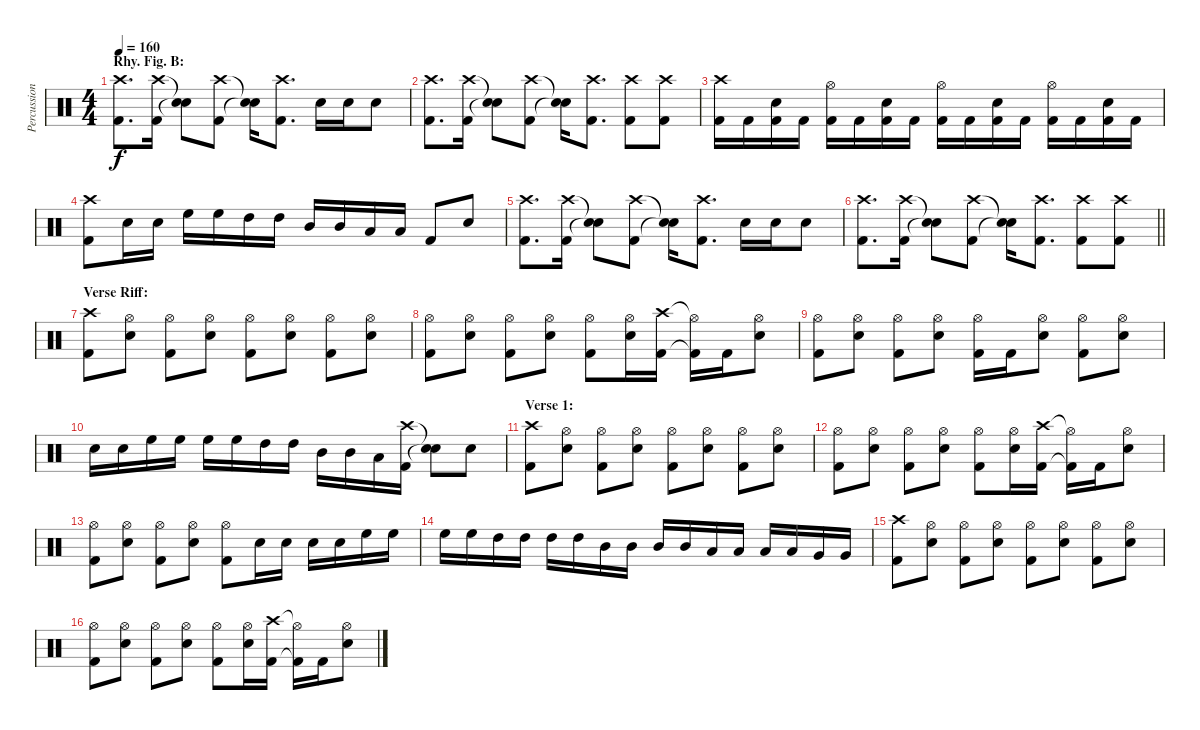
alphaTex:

\track ("Percussion" "Percussion") {instrument percussion}
\staff {score}
\articulation defaults
\ts (4 4)
\section ("" "Rhy. Fig. B:")
\tempo 160
\clef neutral
\ks c
("Crash high (hit)" "Kick (hit) 2").8{d dy f} ("Crash high (hit)" "Kick (hit) 2").16 ("Snare (hit)"{t} "Snare (hit)"{t}).8 ("Crash high (hit)" "Kick (hit) 2").8 ("Snare (hit)"{t} "Snare (hit)"{t}).16 ("Crash high (hit)" "Kick (hit) 2").8{d} "Snare (hit) 2".16 "Snare (hit) 2".16 "Snare (hit) 2".8 |
("Crash high (hit)" "Kick (hit) 2").8{d} ("Crash high (hit)" "Kick (hit) 2").16 ("Snare (hit)"{t} "Snare (hit)"{t}).8 ("Crash high (hit)" "Kick (hit) 2").8 ("Snare (hit)"{t} "Snare (hit)"{t}).16 ("Crash high (hit)" "Kick (hit) 2").8{d} ("Crash high (hit)" "Kick (hit) 2").8 ("Crash high (hit)" "Kick (hit) 2").8 |
("Crash high (hit)" "Kick (hit) 2").16 "Kick (hit) 2".16 ("Snare (hit) 2" "Kick (hit) 2").16 "Kick (hit) 2".16 ("Hi-Hat (open)" "Kick (hit) 2").16 "Kick (hit) 2".16 ("Snare (hit) 2" "Kick (hit) 2").16 "Kick (hit) 2".16 ("Hi-Hat (open)" "Kick (hit) 2").16 "Kick (hit) 2".16 ("Snare (hit) 2" "Kick (hit) 2").16 "Kick (hit) 2".16 ("Hi-Hat (open)" "Kick (hit) 2").16 "Kick (hit) 2".16 ("Snare (hit) 2" "Kick (hit) 2").16 "Kick (hit) 2".16 |
("Crash high (hit)" "Kick (hit) 2").8 "Snare (hit) 2".16 "Snare (hit) 2".16 "High Floor Tom (hit)".16 "High Floor Tom (hit)".16 "High Tom (hit)".16 "High Tom (hit)".16 "Mid Tom (hit)".16 "Mid Tom (hit)".16 "Low Tom (hit)".16 "Low Tom (hit)".16 "Kick (hit) 2".8 "Snare (hit) 2".8 |
("Crash high (hit)" "Kick (hit) 2").8{d} ("Crash high (hit)" "Kick (hit) 2").16 ("Snare (hit)"{t} "Snare (hit)"{t}).8 ("Crash high (hit)" "Kick (hit) 2").8 ("Snare (hit)"{t} "Snare (hit)"{t}).16 ("Crash high (hit)" "Kick (hit) 2").8{d} "Snare (hit) 2".16 "Snare (hit) 2".16 "Snare (hit) 2".8 |
\barLineRight lightlight
("Crash high (hit)" "Kick (hit) 2").8{d} ("Crash high (hit)" "Kick (hit) 2").16 ("Snare (hit)"{t} "Snare (hit)"{t}).8 ("Crash high (hit)" "Kick (hit) 2").8 ("Snare (hit)"{t} "Snare (hit)"{t}).16 ("Crash high (hit)" "Kick (hit) 2").8{d} ("Crash high (hit)" "Kick (hit) 2").8 ("Crash high (hit)" "Kick (hit) 2").8 |
\section ("" "Verse Riff:")
("Crash high (hit)" "Kick (hit) 2").8 ("Hi-Hat (open)" "Snare (hit) 2").8 ("Hi-Hat (open)" "Kick (hit) 2").8 ("Hi-Hat (open)" "Snare (hit) 2").8 ("Hi-Hat (open)" "Kick (hit) 2").8 ("Hi-Hat (open)" "Snare (hit) 2").8 ("Hi-Hat (open)" "Kick (hit) 2").8 ("Hi-Hat (open)" "Snare (hit) 2").8 |
("Hi-Hat (open)" "Kick (hit) 2").8 ("Hi-Hat (open)" "Snare (hit) 2").8 ("Hi-Hat (open)" "Kick (hit) 2").8 ("Hi-Hat (open)" "Snare (hit) 2").8 ("Hi-Hat (open)" "Kick (hit) 2").8 ("Hi-Hat (open)" "Snare (hit) 2").16 ("Crash high (hit)" "Kick (hit) 2").16 ("Hi-Hat (open)"{t} "Kick (hit) 2"{t}).16 "Kick (hit) 2".16 ("Hi-Hat (open)" "Snare (hit) 2").8 |
("Hi-Hat (open)" "Kick (hit) 2").8 ("Hi-Hat (open)" "Snare (hit) 2").8 ("Hi-Hat (open)" "Kick (hit) 2").8 ("Hi-Hat (open)" "Snare (hit) 2").8 ("Hi-Hat (open)" "Kick (hit) 2").16 "Kick (hit) 2".16 ("Hi-Hat (open)" "Snare (hit) 2").8 ("Hi-Hat (open)" "Kick (hit) 2").8 ("Hi-Hat (open)" "Snare (hit) 2").8 |
"Snare (hit) 2".16 "Snare (hit) 2".16 "High Floor Tom (hit)".16 "High Floor Tom (hit)".16 "High Floor Tom (hit)".16 "High Floor Tom (hit)".16 "High Tom (hit)".16 "High Tom (hit)".16 "Mid Tom (hit)".16 "Mid Tom (hit)".16 "Low Tom (hit)".16 ("Crash high (hit)" "Kick (hit) 2").16 ("Snare (hit)"{t} "Snare (hit)"{t}).8 "Snare (hit) 2".8 |
\section ("" "Verse 1:")
("Crash high (hit)" "Kick (hit) 2").8 ("Hi-Hat (open)" "Snare (hit) 2").8 ("Hi-Hat (open)" "Kick (hit) 2").8 ("Hi-Hat (open)" "Snare (hit) 2").8 ("Hi-Hat (open)" "Kick (hit) 2").8 ("Hi-Hat (open)" "Snare (hit) 2").8 ("Hi-Hat (open)" "Kick (hit) 2").8 ("Hi-Hat (open)" "Snare (hit) 2").8 |
("Hi-Hat (open)" "Kick (hit) 2").8 ("Hi-Hat (open)" "Snare (hit) 2").8 ("Hi-Hat (open)" "Kick (hit) 2").8 ("Hi-Hat (open)" "Snare (hit) 2").8 ("Hi-Hat (open)" "Kick (hit) 2").8 ("Hi-Hat (open)" "Snare (hit) 2").16 ("Crash high (hit)" "Kick (hit) 2").16 ("Hi-Hat (open)"{t} "Kick (hit) 2"{t}).16 "Kick (hit) 2".16 ("Hi-Hat (open)" "Snare (hit) 2").8 |
("Hi-Hat (open)" "Kick (hit) 2").8 ("Hi-Hat (open)" "Snare (hit) 2").8 ("Hi-Hat (open)" "Kick (hit) 2").8 ("Hi-Hat (open)" "Snare (hit) 2").8 ("Hi-Hat (open)" "Kick (hit) 2").8 "Snare (hit) 2".16 "Snare (hit) 2".16 "Snare (hit) 2".16 "Snare (hit) 2".16 "High Floor Tom (hit)".16 "High Floor Tom (hit)".16 |
"High Floor Tom (hit)".16 "High Floor Tom (hit)".16 "High Tom (hit)".16 "High Tom (hit)".16 "High Tom (hit)".16 "High Tom (hit)".16 "Mid Tom (hit)".16 "Mid Tom (hit)".16 "Mid Tom (hit)".16 "Mid Tom (hit)".16 "Low Tom (hit)".16 "Low Tom (hit)".16 "Low Tom (hit)".16 "Low Tom (hit)".16 "Very Low Tom (hit)".16 "Very Low Tom (hit)".16 |
("Crash high (hit)" "Kick (hit) 2").8 ("Hi-Hat (open)" "Snare (hit) 2").8 ("Hi-Hat (open)" "Kick (hit) 2").8 ("Hi-Hat (open)" "Snare (hit) 2").8 ("Hi-Hat (open)" "Kick (hit) 2").8 ("Hi-Hat (open)" "Snare (hit) 2").8 ("Hi-Hat (open)" "Kick (hit) 2").8 ("Hi-Hat (open)" "Snare (hit) 2").8 |
("Hi-Hat (open)" "Kick (hit) 2").8 ("Hi-Hat (open)" "Snare (hit) 2").8 ("Hi-Hat (open)" "Kick (hit) 2").8 ("Hi-Hat (open)" "Snare (hit) 2").8 ("Hi-Hat (open)" "Kick (hit) 2").8 ("Hi-Hat (open)" "Snare (hit) 2").16 ("Crash high (hit)" "Kick (hit) 2").16 ("Hi-Hat (open)"{t} "Kick (hit) 2"{t}).16 "Kick (hit) 2".16 ("Hi-Hat (open)" "Snare (hit) 2").8
